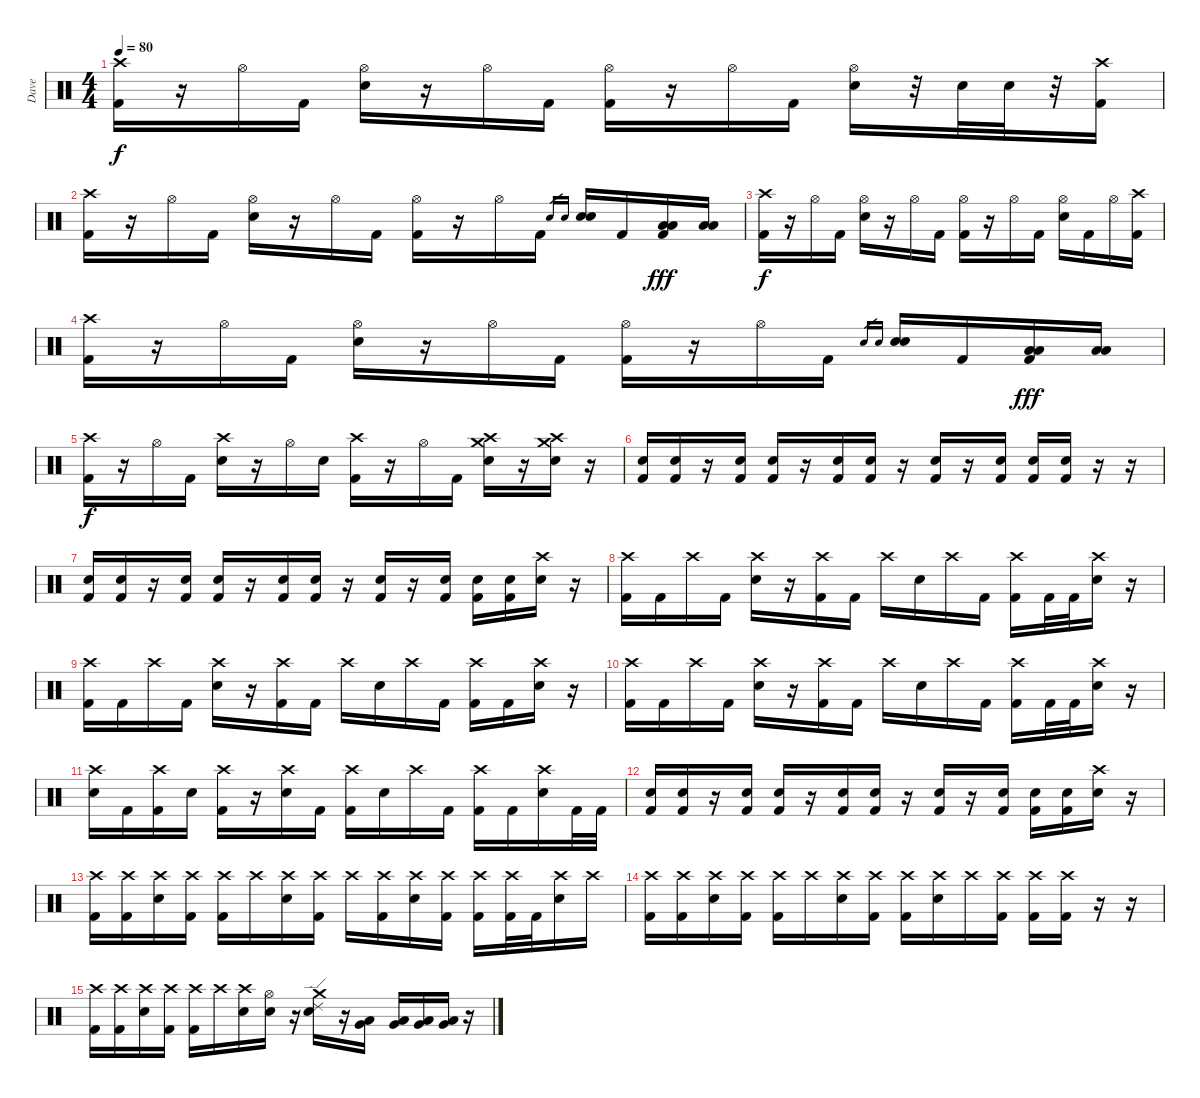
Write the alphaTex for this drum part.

\track ("Dave" "Dave") {instrument percussion}
\staff {score}
\articulation defaults
\ts (4 4)
\tempo 80
\clef neutral
\ks c
("Crash high (hit)" "Kick (hit) 2").16{dy f} r.16 "Hi-Hat (open)".16 "Kick (hit) 2".16 ("Hi-Hat (open)" "Electric Snare (hit)").16 r.16 "Hi-Hat (open)".16 "Kick (hit) 2".16 ("Hi-Hat (open)" "Kick (hit) 2").16 r.16 "Hi-Hat (open)".16 "Kick (hit) 2".16 ("Hi-Hat (open)" "Electric Snare (hit)").16 r.32 "Electric Snare (hit)".32 "Electric Snare (hit)".32 r.32 ("Crash high (hit)" "Kick (hit) 2").16 |
("Crash high (hit)" "Kick (hit) 2").16 r.16 "Hi-Hat (open)".16 "Kick (hit) 2".16 ("Hi-Hat (open)" "Electric Snare (hit)").16 r.16 "Hi-Hat (open)".16 "Kick (hit) 2".16 ("Hi-Hat (open)" "Kick (hit) 2").16 r.16 "Hi-Hat (open)".16 "Kick (hit) 2".16 "Electric Snare (hit)".16{gr} "Electric Snare (hit)".16{gr} ("Electric Snare (hit)" "Electric Snare (hit)").16 "Kick (hit) 2".16 ("Low Tom (hit)" "Low Floor Tom (hit)" "Kick (hit) 2").16{dy fff} ("Low Tom (hit)" "Low Floor Tom (hit)").16 |
("Crash high (hit)" "Kick (hit) 2").16{dy f} r.16 "Hi-Hat (open)".16 "Kick (hit) 2".16 ("Hi-Hat (open)" "Electric Snare (hit)").16 r.16 "Hi-Hat (open)".16 "Kick (hit) 2".16 ("Hi-Hat (open)" "Kick (hit) 2").16 r.16 "Hi-Hat (open)".16 "Kick (hit) 2".16 ("Hi-Hat (open)" "Electric Snare (hit)").16 "Kick (hit) 2".16 "Hi-Hat (open)".16 ("Crash high (hit)" "Kick (hit) 2").16 |
("Crash high (hit)" "Kick (hit) 2").16 r.16 "Hi-Hat (open)".16 "Kick (hit) 2".16 ("Hi-Hat (open)" "Electric Snare (hit)").16 r.16 "Hi-Hat (open)".16 "Kick (hit) 2".16 ("Hi-Hat (open)" "Kick (hit) 2").16 r.16 "Hi-Hat (open)".16 "Kick (hit) 2".16 "Electric Snare (hit)".16{gr} "Electric Snare (hit)".16{gr} ("Electric Snare (hit)" "Electric Snare (hit)").16 "Kick (hit) 2".16 ("Low Tom (hit)" "Low Floor Tom (hit)" "Kick (hit) 2").16{dy fff} ("Low Tom (hit)" "Low Floor Tom (hit)").16 |
("Crash high (hit)" "Kick (hit) 2").16{dy f} r.16 "Hi-Hat (open)".16 "Kick (hit) 2".16 ("Crash high (hit)" "Electric Snare (hit)").16 r.16 "Hi-Hat (open)".16 "Electric Snare (hit)".16 ("Crash high (hit)" "Kick (hit) 2").16 r.16 "Hi-Hat (open)".16 "Kick (hit) 2".16 ("Crash high (hit)" "Crash medium (hit)" "Electric Snare (hit)").16 r.16 ("Crash high (hit)" "Crash medium (hit)" "Electric Snare (hit)").16 r.16 |
("Electric Snare (hit)" "Kick (hit) 2").16 ("Electric Snare (hit)" "Kick (hit) 2").16 r.16 ("Electric Snare (hit)" "Kick (hit) 2").16 ("Electric Snare (hit)" "Kick (hit) 2").16 r.16 ("Electric Snare (hit)" "Kick (hit) 2").16 ("Electric Snare (hit)" "Kick (hit) 2").16 r.16 ("Electric Snare (hit)" "Kick (hit) 2").16 r.16 ("Electric Snare (hit)" "Kick (hit) 2").16 ("Electric Snare (hit)" "Kick (hit) 2").16 ("Electric Snare (hit)" "Kick (hit) 2").16 r.16 r.16 |
("Electric Snare (hit)" "Kick (hit) 2").16 ("Electric Snare (hit)" "Kick (hit) 2").16 r.16 ("Electric Snare (hit)" "Kick (hit) 2").16 ("Electric Snare (hit)" "Kick (hit) 2").16 r.16 ("Electric Snare (hit)" "Kick (hit) 2").16 ("Electric Snare (hit)" "Kick (hit) 2").16 r.16 ("Electric Snare (hit)" "Kick (hit) 2").16 r.16 ("Electric Snare (hit)" "Kick (hit) 2").16 ("Electric Snare (hit)" "Kick (hit) 2").16 ("Electric Snare (hit)" "Kick (hit) 2").16 ("Crash high (hit)" "Electric Snare (hit)").16 r.16 |
("Crash high (hit)" "Kick (hit) 2").16 "Kick (hit) 2".16 "Crash high (hit)".16 "Kick (hit) 2".16 ("Crash high (hit)" "Electric Snare (hit)").16 r.16 ("Crash high (hit)" "Kick (hit) 2").16 "Kick (hit) 2".16 "Crash high (hit)".16 "Electric Snare (hit)".16 "Crash high (hit)".16 "Kick (hit) 2".16 ("Crash high (hit)" "Kick (hit) 2").16 "Kick (hit) 2".32 "Kick (hit) 2".32 ("Crash high (hit)" "Electric Snare (hit)").16 r.16 |
("Crash high (hit)" "Kick (hit) 2").16 "Kick (hit) 2".16 "Crash high (hit)".16 "Kick (hit) 2".16 ("Crash high (hit)" "Electric Snare (hit)").16 r.16 ("Crash high (hit)" "Kick (hit) 2").16 "Kick (hit) 2".16 "Crash high (hit)".16 "Electric Snare (hit)".16 "Crash high (hit)".16 "Kick (hit) 2".16 ("Crash high (hit)" "Kick (hit) 2").16 "Kick (hit) 2".16 ("Crash high (hit)" "Electric Snare (hit)").16 r.16 |
("Crash high (hit)" "Kick (hit) 2").16 "Kick (hit) 2".16 "Crash high (hit)".16 "Kick (hit) 2".16 ("Crash high (hit)" "Electric Snare (hit)").16 r.16 ("Crash high (hit)" "Kick (hit) 2").16 "Kick (hit) 2".16 "Crash high (hit)".16 "Electric Snare (hit)".16 "Crash high (hit)".16 "Kick (hit) 2".16 ("Crash high (hit)" "Kick (hit) 2").16 "Kick (hit) 2".32 "Kick (hit) 2".32 ("Crash high (hit)" "Electric Snare (hit)").16 r.16 |
("Crash high (hit)" "Electric Snare (hit)").16 "Kick (hit) 2".16 ("Crash high (hit)" "Kick (hit) 2").16 "Electric Snare (hit)".16 ("Crash high (hit)" "Kick (hit) 2").16 r.16 ("Crash high (hit)" "Electric Snare (hit)").16 "Kick (hit) 2".16 ("Crash high (hit)" "Kick (hit) 2").16 "Electric Snare (hit)".16 "Crash high (hit)".16 "Kick (hit) 2".16 ("Crash high (hit)" "Kick (hit) 2").16 "Kick (hit) 2".16 ("Crash high (hit)" "Electric Snare (hit)").16 "Kick (hit) 2".32 "Kick (hit) 2".32 |
("Electric Snare (hit)" "Kick (hit) 2").16 ("Electric Snare (hit)" "Kick (hit) 2").16 r.16 ("Electric Snare (hit)" "Kick (hit) 2").16 ("Electric Snare (hit)" "Kick (hit) 2").16 r.16 ("Electric Snare (hit)" "Kick (hit) 2").16 ("Electric Snare (hit)" "Kick (hit) 2").16 r.16 ("Electric Snare (hit)" "Kick (hit) 2").16 r.16 ("Electric Snare (hit)" "Kick (hit) 2").16 ("Electric Snare (hit)" "Kick (hit) 2").16 ("Electric Snare (hit)" "Kick (hit) 2").16 ("Crash high (hit)" "Electric Snare (hit)").16 r.16 |
("Crash high (hit)" "Kick (hit) 2").16 ("Crash high (hit)" "Kick (hit) 2").16 ("Crash high (hit)" "Electric Snare (hit)").16 ("Crash high (hit)" "Kick (hit) 2").16 ("Crash high (hit)" "Kick (hit) 2").16 "Crash high (hit)".16 ("Crash high (hit)" "Electric Snare (hit)").16 ("Crash high (hit)" "Kick (hit) 2").16 "Crash high (hit)".16 ("Crash high (hit)" "Kick (hit) 2").16 ("Crash high (hit)" "Electric Snare (hit)").16 ("Crash high (hit)" "Kick (hit) 2").16 ("Crash high (hit)" "Kick (hit) 2").16 ("Crash high (hit)" "Kick (hit) 2").32 "Kick (hit) 2".32 ("Crash high (hit)" "Electric Snare (hit)").16 "Crash high (hit)".16 |
("Crash high (hit)" "Kick (hit) 2").16 ("Crash high (hit)" "Kick (hit) 2").16 ("Crash high (hit)" "Electric Snare (hit)").16 ("Crash high (hit)" "Kick (hit) 2").16 ("Crash high (hit)" "Kick (hit) 2").16 "Crash high (hit)".16 ("Crash high (hit)" "Electric Snare (hit)").16 ("Crash high (hit)" "Kick (hit) 2").16 ("Crash high (hit)" "Kick (hit) 2").16 ("Crash high (hit)" "Electric Snare (hit)").16 "Crash high (hit)".16 ("Crash high (hit)" "Kick (hit) 2").16 ("Crash high (hit)" "Kick (hit) 2").16 ("Crash high (hit)" "Kick (hit) 2").16 r.16 r.16 |
("Crash high (hit)" "Kick (hit) 2").16 ("Crash high (hit)" "Kick (hit) 2").16 ("Crash high (hit)" "Electric Snare (hit)").16 ("Crash high (hit)" "Kick (hit) 2").16 ("Crash high (hit)" "Kick (hit) 2").16 "Crash high (hit)".16 ("Crash high (hit)" "Electric Snare (hit)").16 ("Hi-Hat (open)" "Electric Snare (hit)").16 r.16 ("Crash medium (hit)" "Ride (edge) 2" "Electric Snare (hit)").16 r.16 ("Very Low Tom (hit)" "Low Floor Tom (hit)").16 ("Very Low Tom (hit)" "Low Floor Tom (hit)").16 ("Very Low Tom (hit)" "Low Floor Tom (hit)").16 ("Very Low Tom (hit)" "Low Floor Tom (hit)").16 r.16
